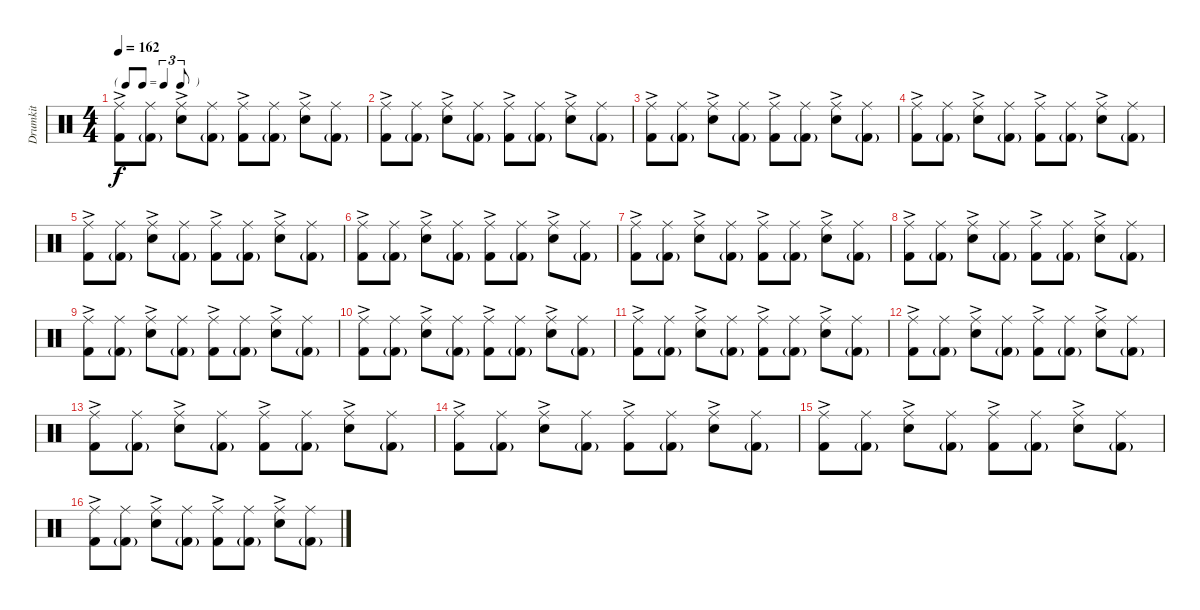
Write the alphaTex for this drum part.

\track ("Drumkit" "Drumkit") {instrument percussion}
\staff {score}
\articulation defaults
\ts (4 4)
\tf triplet8th
\tempo 162
\clef neutral
\ks c
("Kick (hit) 2" "Ride (middle)"{ac}).8{dy f} ("Kick (hit) 2"{g} "Ride (middle)").8 ("Snare (hit) 2" "Ride (middle)"{ac}).8 ("Kick (hit) 2"{g} "Ride (middle)").8 ("Kick (hit) 2" "Ride (middle)"{ac}).8 ("Kick (hit) 2"{g} "Ride (middle)").8 ("Snare (hit) 2" "Ride (middle)"{ac}).8 ("Kick (hit) 2"{g} "Ride (middle)").8 |
("Kick (hit) 2" "Ride (middle)"{ac}).8 ("Kick (hit) 2"{g} "Ride (middle)").8 ("Snare (hit) 2" "Ride (middle)"{ac}).8 ("Kick (hit) 2"{g} "Ride (middle)").8 ("Kick (hit) 2" "Ride (middle)"{ac}).8 ("Kick (hit) 2"{g} "Ride (middle)").8 ("Snare (hit) 2" "Ride (middle)"{ac}).8 ("Kick (hit) 2"{g} "Ride (middle)").8 |
("Kick (hit) 2" "Ride (middle)"{ac}).8 ("Kick (hit) 2"{g} "Ride (middle)").8 ("Snare (hit) 2" "Ride (middle)"{ac}).8 ("Kick (hit) 2"{g} "Ride (middle)").8 ("Kick (hit) 2" "Ride (middle)"{ac}).8 ("Kick (hit) 2"{g} "Ride (middle)").8 ("Snare (hit) 2" "Ride (middle)"{ac}).8 ("Kick (hit) 2"{g} "Ride (middle)").8 |
("Kick (hit) 2" "Ride (middle)"{ac}).8 ("Kick (hit) 2"{g} "Ride (middle)").8 ("Snare (hit) 2" "Ride (middle)"{ac}).8 ("Kick (hit) 2"{g} "Ride (middle)").8 ("Kick (hit) 2" "Ride (middle)"{ac}).8 ("Kick (hit) 2"{g} "Ride (middle)").8 ("Snare (hit) 2" "Ride (middle)"{ac}).8 ("Kick (hit) 2"{g} "Ride (middle)").8 |
("Kick (hit) 2" "Ride (middle)"{ac}).8 ("Kick (hit) 2"{g} "Ride (middle)").8 ("Snare (hit) 2" "Ride (middle)"{ac}).8 ("Kick (hit) 2"{g} "Ride (middle)").8 ("Kick (hit) 2" "Ride (middle)"{ac}).8 ("Kick (hit) 2"{g} "Ride (middle)").8 ("Snare (hit) 2" "Ride (middle)"{ac}).8 ("Kick (hit) 2"{g} "Ride (middle)").8 |
("Kick (hit) 2" "Ride (middle)"{ac}).8 ("Kick (hit) 2"{g} "Ride (middle)").8 ("Snare (hit) 2" "Ride (middle)"{ac}).8 ("Kick (hit) 2"{g} "Ride (middle)").8 ("Kick (hit) 2" "Ride (middle)"{ac}).8 ("Kick (hit) 2"{g} "Ride (middle)").8 ("Snare (hit) 2" "Ride (middle)"{ac}).8 ("Kick (hit) 2"{g} "Ride (middle)").8 |
("Kick (hit) 2" "Ride (middle)"{ac}).8 ("Kick (hit) 2"{g} "Ride (middle)").8 ("Snare (hit) 2" "Ride (middle)"{ac}).8 ("Kick (hit) 2"{g} "Ride (middle)").8 ("Kick (hit) 2" "Ride (middle)"{ac}).8 ("Kick (hit) 2"{g} "Ride (middle)").8 ("Snare (hit) 2" "Ride (middle)"{ac}).8 ("Kick (hit) 2"{g} "Ride (middle)").8 |
("Kick (hit) 2" "Ride (middle)"{ac}).8 ("Kick (hit) 2"{g} "Ride (middle)").8 ("Snare (hit) 2" "Ride (middle)"{ac}).8 ("Kick (hit) 2"{g} "Ride (middle)").8 ("Kick (hit) 2" "Ride (middle)"{ac}).8 ("Kick (hit) 2"{g} "Ride (middle)").8 ("Snare (hit) 2" "Ride (middle)"{ac}).8 ("Kick (hit) 2"{g} "Ride (middle)").8 |
("Kick (hit) 2" "Ride (middle)"{ac}).8 ("Kick (hit) 2"{g} "Ride (middle)").8 ("Snare (hit) 2" "Ride (middle)"{ac}).8 ("Kick (hit) 2"{g} "Ride (middle)").8 ("Kick (hit) 2" "Ride (middle)"{ac}).8 ("Kick (hit) 2"{g} "Ride (middle)").8 ("Snare (hit) 2" "Ride (middle)"{ac}).8 ("Kick (hit) 2"{g} "Ride (middle)").8 |
("Kick (hit) 2" "Ride (middle)"{ac}).8 ("Kick (hit) 2"{g} "Ride (middle)").8 ("Snare (hit) 2" "Ride (middle)"{ac}).8 ("Kick (hit) 2"{g} "Ride (middle)").8 ("Kick (hit) 2" "Ride (middle)"{ac}).8 ("Kick (hit) 2"{g} "Ride (middle)").8 ("Snare (hit) 2" "Ride (middle)"{ac}).8 ("Kick (hit) 2"{g} "Ride (middle)").8 |
("Kick (hit) 2" "Ride (middle)"{ac}).8 ("Kick (hit) 2"{g} "Ride (middle)").8 ("Snare (hit) 2" "Ride (middle)"{ac}).8 ("Kick (hit) 2"{g} "Ride (middle)").8 ("Kick (hit) 2" "Ride (middle)"{ac}).8 ("Kick (hit) 2"{g} "Ride (middle)").8 ("Snare (hit) 2" "Ride (middle)"{ac}).8 ("Kick (hit) 2"{g} "Ride (middle)").8 |
("Kick (hit) 2" "Ride (middle)"{ac}).8 ("Kick (hit) 2"{g} "Ride (middle)").8 ("Snare (hit) 2" "Ride (middle)"{ac}).8 ("Kick (hit) 2"{g} "Ride (middle)").8 ("Kick (hit) 2" "Ride (middle)"{ac}).8 ("Kick (hit) 2"{g} "Ride (middle)").8 ("Snare (hit) 2" "Ride (middle)"{ac}).8 ("Kick (hit) 2"{g} "Ride (middle)").8 |
("Kick (hit) 2" "Ride (middle)"{ac}).8 ("Kick (hit) 2"{g} "Ride (middle)").8 ("Snare (hit) 2" "Ride (middle)"{ac}).8 ("Kick (hit) 2"{g} "Ride (middle)").8 ("Kick (hit) 2" "Ride (middle)"{ac}).8 ("Kick (hit) 2"{g} "Ride (middle)").8 ("Snare (hit) 2" "Ride (middle)"{ac}).8 ("Kick (hit) 2"{g} "Ride (middle)").8 |
("Kick (hit) 2" "Ride (middle)"{ac}).8 ("Kick (hit) 2"{g} "Ride (middle)").8 ("Snare (hit) 2" "Ride (middle)"{ac}).8 ("Kick (hit) 2"{g} "Ride (middle)").8 ("Kick (hit) 2" "Ride (middle)"{ac}).8 ("Kick (hit) 2"{g} "Ride (middle)").8 ("Snare (hit) 2" "Ride (middle)"{ac}).8 ("Kick (hit) 2"{g} "Ride (middle)").8 |
("Kick (hit) 2" "Ride (middle)"{ac}).8 ("Kick (hit) 2"{g} "Ride (middle)").8 ("Snare (hit) 2" "Ride (middle)"{ac}).8 ("Kick (hit) 2"{g} "Ride (middle)").8 ("Kick (hit) 2" "Ride (middle)"{ac}).8 ("Kick (hit) 2"{g} "Ride (middle)").8 ("Snare (hit) 2" "Ride (middle)"{ac}).8 ("Kick (hit) 2"{g} "Ride (middle)").8 |
("Kick (hit) 2" "Ride (middle)"{ac}).8 ("Kick (hit) 2"{g} "Ride (middle)").8 ("Snare (hit) 2" "Ride (middle)"{ac}).8 ("Kick (hit) 2"{g} "Ride (middle)").8 ("Kick (hit) 2" "Ride (middle)"{ac}).8 ("Kick (hit) 2"{g} "Ride (middle)").8 ("Snare (hit) 2" "Ride (middle)"{ac}).8 ("Kick (hit) 2"{g} "Ride (middle)").8
